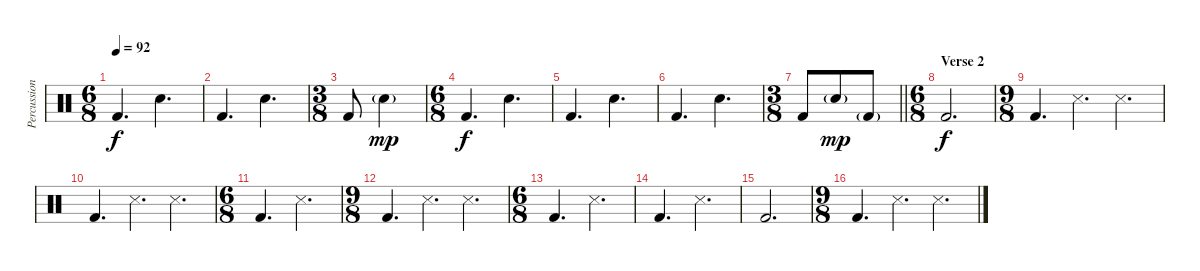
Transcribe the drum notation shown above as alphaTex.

\track ("Percussion" "Percussion") {instrument percussion}
\staff {score}
\articulation defaults
\ts (6 8)
\tempo 92
\clef neutral
\ks c "Kick (hit) 2".4{d dy f} "Snare (hit) 2".4{d}
|
"Kick (hit) 2".4{d} "Snare (hit) 2".4{d} |
\ts (3 8)
"Kick (hit) 2".8 "Snare (hit) 2"{g}.4{dy mp} |
\ts (6 8)
"Kick (hit) 2".4{d dy f} "Snare (hit) 2".4{d} |
"Kick (hit) 2".4{d} "Snare (hit) 2".4{d} |
"Kick (hit) 2".4{d} "Snare (hit) 2".4{d} |
\ts (3 8)
\barLineRight lightlight "Kick (hit) 2".8 "Snare (hit) 2"{g}.8{dy mp} "Kick (hit) 2"{g}.8
|
\ts (6 8)
\section ("" "Verse 2")
"Kick (hit) 2".2{d dy f} |
\ts (9 8)
"Kick (hit) 2".4{d} "Snare (side stick) 3".4{d} "Snare (side stick) 3".4{d} |
"Kick (hit) 2".4{d} "Snare (side stick) 3".4{d} "Snare (side stick) 3".4{d} |
\ts (6 8)
"Kick (hit) 2".4{d} "Snare (side stick) 3".4{d} |
\ts (9 8)
"Kick (hit) 2".4{d} "Snare (side stick) 3".4{d} "Snare (side stick) 3".4{d} |
\ts (6 8)
"Kick (hit) 2".4{d} "Snare (side stick) 3".4{d} |
"Kick (hit) 2".4{d} "Snare (side stick) 3".4{d} |
"Kick (hit) 2".2{d} |
\ts (9 8)
"Kick (hit) 2".4{d} "Snare (side stick) 3".4{d} "Snare (side stick) 3".4{d}
